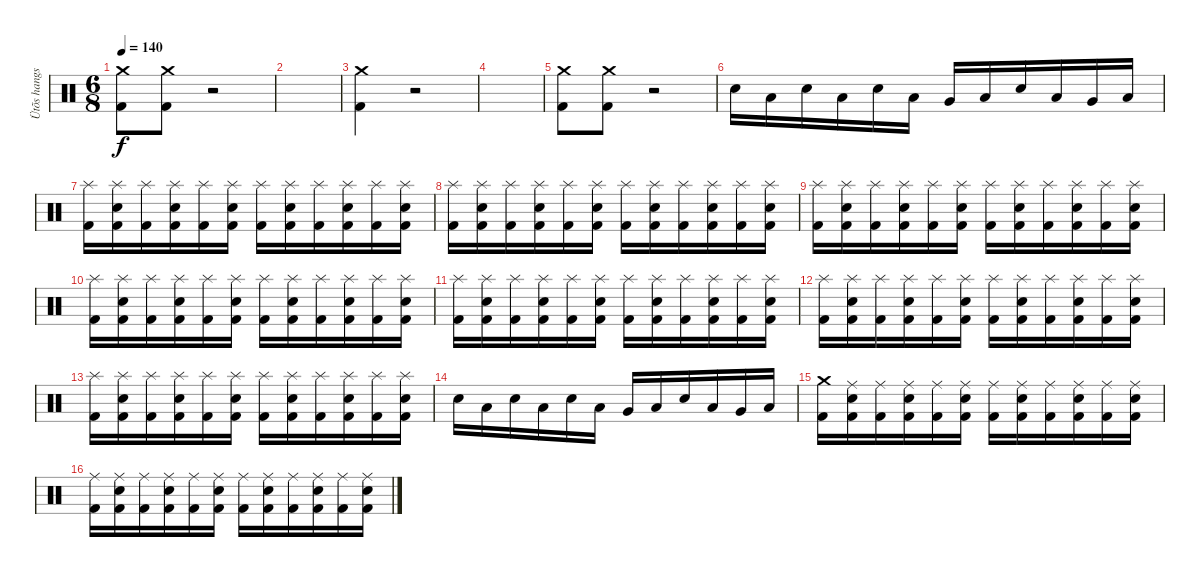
\track ("Ütõs hangszer" "Ütõs hangs") {instrument percussion}
\staff {score}
\articulation defaults
\ts (6 8)
\tempo 140
\clef neutral
\ks c
("Crash medium (hit)" "Kick (hit) 2").8{dy f} ("Crash medium (hit)" "Kick (hit) 2").8 r.2 |
|
("Crash medium (hit)" "Kick (hit) 2").4 r.2 |
|
("Crash medium (hit)" "Kick (hit) 2").8 ("Crash medium (hit)" "Kick (hit) 2").8 r.2 |
"Electric Snare (hit)".16 "Low Tom (hit)".16 "Electric Snare (hit)".16 "Low Tom (hit)".16 "Electric Snare (hit)".16 "Low Tom (hit)".16 "Very Low Tom (hit)".16 "Low Floor Tom (hit)".16 "Electric Snare (hit)".16 "Low Tom (hit)".16 "Very Low Tom (hit)".16 "Low Floor Tom (hit)".16 |
("Splash (hit)" "Kick (hit) 2").16 ("Splash (hit)" "Electric Snare (hit)" "Kick (hit) 2").16 ("Splash (hit)" "Kick (hit) 2").16 ("Splash (hit)" "Electric Snare (hit)" "Kick (hit) 2").16 ("Splash (hit)" "Kick (hit) 2").16 ("Splash (hit)" "Electric Snare (hit)" "Kick (hit) 2").16 ("Splash (hit)" "Kick (hit) 2").16 ("Splash (hit)" "Electric Snare (hit)" "Kick (hit) 2").16 ("Splash (hit)" "Kick (hit) 2").16 ("Splash (hit)" "Electric Snare (hit)" "Kick (hit) 2").16 ("Splash (hit)" "Kick (hit) 2").16 ("Splash (hit)" "Electric Snare (hit)" "Kick (hit) 2").16 |
("Splash (hit)" "Kick (hit) 2").16 ("Splash (hit)" "Electric Snare (hit)" "Kick (hit) 2").16 ("Splash (hit)" "Kick (hit) 2").16 ("Splash (hit)" "Electric Snare (hit)" "Kick (hit) 2").16 ("Splash (hit)" "Kick (hit) 2").16 ("Splash (hit)" "Electric Snare (hit)" "Kick (hit) 2").16 ("Splash (hit)" "Kick (hit) 2").16 ("Splash (hit)" "Electric Snare (hit)" "Kick (hit) 2").16 ("Splash (hit)" "Kick (hit) 2").16 ("Splash (hit)" "Electric Snare (hit)" "Kick (hit) 2").16 ("Splash (hit)" "Kick (hit) 2").16 ("Splash (hit)" "Electric Snare (hit)" "Kick (hit) 2").16 |
("Splash (hit)" "Kick (hit) 2").16 ("Splash (hit)" "Electric Snare (hit)" "Kick (hit) 2").16 ("Splash (hit)" "Kick (hit) 2").16 ("Splash (hit)" "Electric Snare (hit)" "Kick (hit) 2").16 ("Splash (hit)" "Kick (hit) 2").16 ("Splash (hit)" "Electric Snare (hit)" "Kick (hit) 2").16 ("Splash (hit)" "Kick (hit) 2").16 ("Splash (hit)" "Electric Snare (hit)" "Kick (hit) 2").16 ("Splash (hit)" "Kick (hit) 2").16 ("Splash (hit)" "Electric Snare (hit)" "Kick (hit) 2").16 ("Splash (hit)" "Kick (hit) 2").16 ("Splash (hit)" "Electric Snare (hit)" "Kick (hit) 2").16 |
("Splash (hit)" "Kick (hit) 2").16 ("Splash (hit)" "Electric Snare (hit)" "Kick (hit) 2").16 ("Splash (hit)" "Kick (hit) 2").16 ("Splash (hit)" "Electric Snare (hit)" "Kick (hit) 2").16 ("Splash (hit)" "Kick (hit) 2").16 ("Splash (hit)" "Electric Snare (hit)" "Kick (hit) 2").16 ("Splash (hit)" "Kick (hit) 2").16 ("Splash (hit)" "Electric Snare (hit)" "Kick (hit) 2").16 ("Splash (hit)" "Kick (hit) 2").16 ("Splash (hit)" "Electric Snare (hit)" "Kick (hit) 2").16 ("Splash (hit)" "Kick (hit) 2").16 ("Splash (hit)" "Electric Snare (hit)" "Kick (hit) 2").16 |
("Splash (hit)" "Kick (hit) 2").16 ("Splash (hit)" "Electric Snare (hit)" "Kick (hit) 2").16 ("Splash (hit)" "Kick (hit) 2").16 ("Splash (hit)" "Electric Snare (hit)" "Kick (hit) 2").16 ("Splash (hit)" "Kick (hit) 2").16 ("Splash (hit)" "Electric Snare (hit)" "Kick (hit) 2").16 ("Splash (hit)" "Kick (hit) 2").16 ("Splash (hit)" "Electric Snare (hit)" "Kick (hit) 2").16 ("Splash (hit)" "Kick (hit) 2").16 ("Splash (hit)" "Electric Snare (hit)" "Kick (hit) 2").16 ("Splash (hit)" "Kick (hit) 2").16 ("Splash (hit)" "Electric Snare (hit)" "Kick (hit) 2").16 |
("Splash (hit)" "Kick (hit) 2").16 ("Splash (hit)" "Electric Snare (hit)" "Kick (hit) 2").16 ("Splash (hit)" "Kick (hit) 2").16 ("Splash (hit)" "Electric Snare (hit)" "Kick (hit) 2").16 ("Splash (hit)" "Kick (hit) 2").16 ("Splash (hit)" "Electric Snare (hit)" "Kick (hit) 2").16 ("Splash (hit)" "Kick (hit) 2").16 ("Splash (hit)" "Electric Snare (hit)" "Kick (hit) 2").16 ("Splash (hit)" "Kick (hit) 2").16 ("Splash (hit)" "Electric Snare (hit)" "Kick (hit) 2").16 ("Splash (hit)" "Kick (hit) 2").16 ("Splash (hit)" "Electric Snare (hit)" "Kick (hit) 2").16 |
("Splash (hit)" "Kick (hit) 2").16 ("Splash (hit)" "Electric Snare (hit)" "Kick (hit) 2").16 ("Splash (hit)" "Kick (hit) 2").16 ("Splash (hit)" "Electric Snare (hit)" "Kick (hit) 2").16 ("Splash (hit)" "Kick (hit) 2").16 ("Splash (hit)" "Electric Snare (hit)" "Kick (hit) 2").16 ("Splash (hit)" "Kick (hit) 2").16 ("Splash (hit)" "Electric Snare (hit)" "Kick (hit) 2").16 ("Splash (hit)" "Kick (hit) 2").16 ("Splash (hit)" "Electric Snare (hit)" "Kick (hit) 2").16 ("Splash (hit)" "Kick (hit) 2").16 ("Splash (hit)" "Electric Snare (hit)" "Kick (hit) 2").16 |
"Electric Snare (hit)".16 "Low Tom (hit)".16 "Electric Snare (hit)".16 "Low Tom (hit)".16 "Electric Snare (hit)".16 "Low Tom (hit)".16 "Very Low Tom (hit)".16 "Low Floor Tom (hit)".16 "Electric Snare (hit)".16 "Low Tom (hit)".16 "Very Low Tom (hit)".16 "Low Floor Tom (hit)".16 |
("Crash medium (hit)" "Kick (hit) 2").16 ("Ride (middle)" "Electric Snare (hit)" "Kick (hit) 2").16 ("Ride (middle)" "Kick (hit) 2").16 ("Ride (middle)" "Electric Snare (hit)" "Kick (hit) 2").16 ("Ride (middle)" "Kick (hit) 2").16 ("Ride (middle)" "Electric Snare (hit)" "Kick (hit) 2").16 ("Ride (middle)" "Kick (hit) 2").16 ("Ride (middle)" "Electric Snare (hit)" "Kick (hit) 2").16 ("Ride (middle)" "Kick (hit) 2").16 ("Ride (middle)" "Electric Snare (hit)" "Kick (hit) 2").16 ("Ride (middle)" "Kick (hit) 2").16 ("Ride (middle)" "Electric Snare (hit)" "Kick (hit) 2").16 |
("Ride (middle)" "Kick (hit) 2").16 ("Ride (middle)" "Electric Snare (hit)" "Kick (hit) 2").16 ("Ride (middle)" "Kick (hit) 2").16 ("Ride (middle)" "Electric Snare (hit)" "Kick (hit) 2").16 ("Ride (middle)" "Kick (hit) 2").16 ("Ride (middle)" "Electric Snare (hit)" "Kick (hit) 2").16 ("Ride (middle)" "Kick (hit) 2").16 ("Ride (middle)" "Electric Snare (hit)" "Kick (hit) 2").16 ("Ride (middle)" "Kick (hit) 2").16 ("Ride (middle)" "Electric Snare (hit)" "Kick (hit) 2").16 ("Ride (middle)" "Kick (hit) 2").16 ("Ride (middle)" "Electric Snare (hit)" "Kick (hit) 2").16
